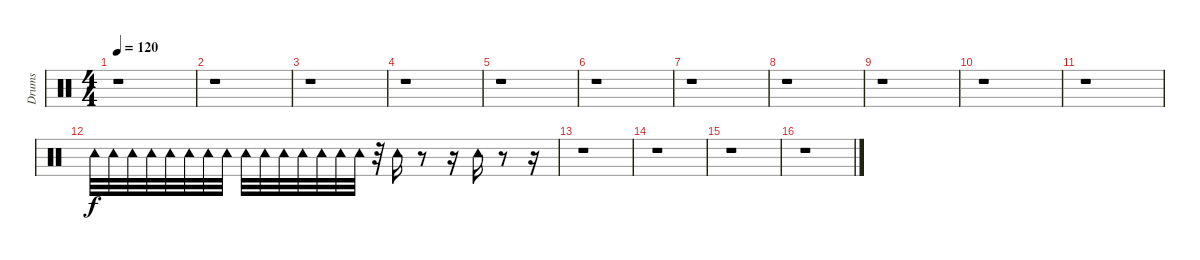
\track ("Drums" "Drums") {instrument percussion}
\staff {score}
\articulation defaults
\ts (4 4)
\tempo 120
\clef neutral
\ks c
r.1{dy f} |
r.1 |
r.1 |
r.1 |
r.1 |
r.1 |
r.1 |
r.1 |
r.1 |
r.1 |
r.1 |
"Tambourine (hit)".32 "Tambourine (hit)".32 "Tambourine (hit)".32 "Tambourine (hit)".32 "Tambourine (hit)".32 "Tambourine (hit)".32 "Tambourine (hit)".32 "Tambourine (hit)".32 "Tambourine (hit)".32 "Tambourine (hit)".32 "Tambourine (hit)".32 "Tambourine (hit)".32 "Tambourine (hit)".32 "Tambourine (hit)".32 "Tambourine (hit)".32 r.32 "Tambourine (hit)".16 r.8 r.16 "Tambourine (hit)".16 r.8 r.16 |
r.1 |
r.1 |
r.1 |
r.1
